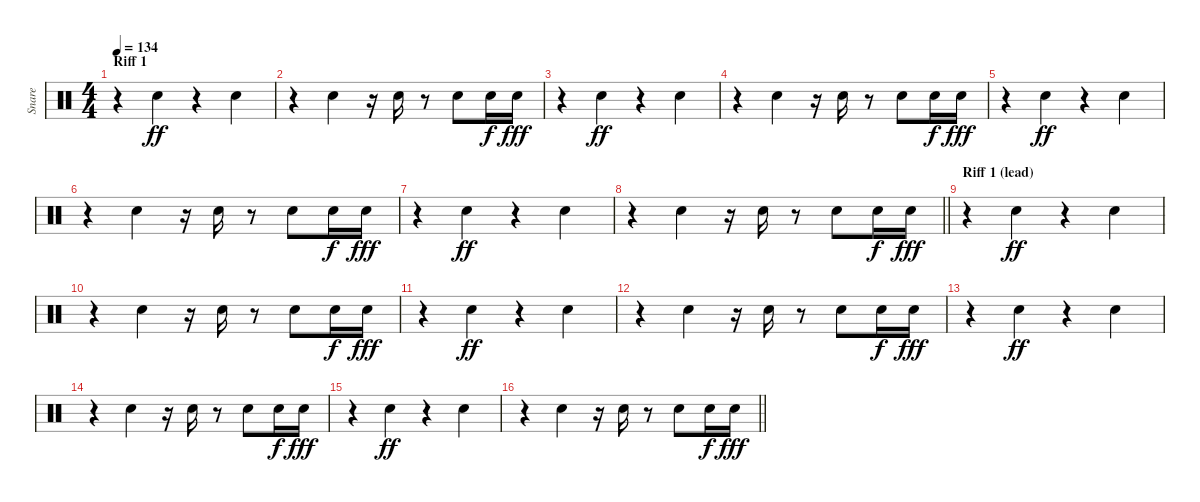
\track ("Snare" "Snare") {instrument percussion}
\staff {score}
\articulation defaults
\ts (4 4)
\section ("" "Riff 1")
\tempo 134
\clef neutral
\ks c
r.4{dy ff} "Snare (hit) 2".4 r.4 "Snare (hit) 2".4 |
r.4 "Snare (hit) 2".4 r.16 "Snare (hit) 2".16 r.8 "Snare (hit) 2".8 "Snare (hit) 2".16{dy f} "Snare (hit) 2".16{dy fff} |
r.4 "Snare (hit) 2".4{dy ff} r.4 "Snare (hit) 2".4 |
r.4 "Snare (hit) 2".4 r.16 "Snare (hit) 2".16 r.8 "Snare (hit) 2".8 "Snare (hit) 2".16{dy f} "Snare (hit) 2".16{dy fff} |
r.4 "Snare (hit) 2".4{dy ff} r.4 "Snare (hit) 2".4 |
r.4 "Snare (hit) 2".4 r.16 "Snare (hit) 2".16 r.8 "Snare (hit) 2".8 "Snare (hit) 2".16{dy f} "Snare (hit) 2".16{dy fff} |
r.4 "Snare (hit) 2".4{dy ff} r.4 "Snare (hit) 2".4 |
\barLineRight lightlight
r.4 "Snare (hit) 2".4 r.16 "Snare (hit) 2".16 r.8 "Snare (hit) 2".8 "Snare (hit) 2".16{dy f} "Snare (hit) 2".16{dy fff} |
\section ("" "Riff 1 (lead)")
r.4 "Snare (hit) 2".4{dy ff} r.4 "Snare (hit) 2".4 |
r.4 "Snare (hit) 2".4 r.16 "Snare (hit) 2".16 r.8 "Snare (hit) 2".8 "Snare (hit) 2".16{dy f} "Snare (hit) 2".16{dy fff} |
r.4 "Snare (hit) 2".4{dy ff} r.4 "Snare (hit) 2".4 |
r.4 "Snare (hit) 2".4 r.16 "Snare (hit) 2".16 r.8 "Snare (hit) 2".8 "Snare (hit) 2".16{dy f} "Snare (hit) 2".16{dy fff} |
r.4 "Snare (hit) 2".4{dy ff} r.4 "Snare (hit) 2".4 |
r.4 "Snare (hit) 2".4 r.16 "Snare (hit) 2".16 r.8 "Snare (hit) 2".8 "Snare (hit) 2".16{dy f} "Snare (hit) 2".16{dy fff} |
r.4 "Snare (hit) 2".4{dy ff} r.4 "Snare (hit) 2".4 |
\barLineRight lightlight
r.4 "Snare (hit) 2".4 r.16 "Snare (hit) 2".16 r.8 "Snare (hit) 2".8 "Snare (hit) 2".16{dy f} "Snare (hit) 2".16{dy fff}
